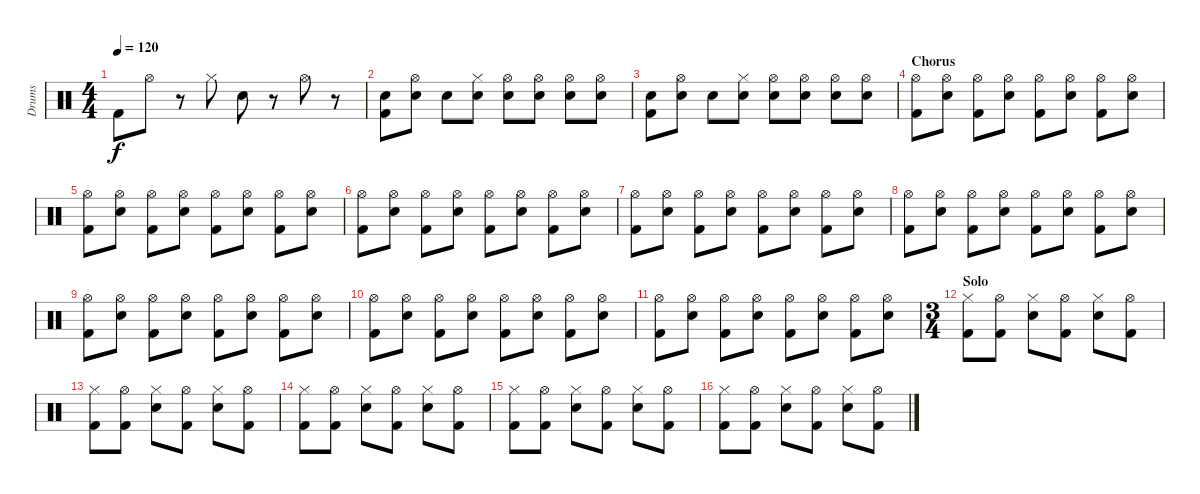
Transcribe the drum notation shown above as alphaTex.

\track ("Drums" "Drums") {instrument percussion}
\staff {score}
\articulation defaults
\ts (4 4)
\tempo 120
\clef neutral
\ks c "Kick (hit) 2".8{dy f} "Hi-Hat (open)".8
r.8 "Hi-Hat (closed)".8 "Snare (hit) 2".8 r.8 "Hi-Hat (open)".8 r.8 |
("Snare (hit) 2" "Kick (hit) 2").8 ("Snare (hit) 2" "Hi-Hat (open)").8 "Snare (hit) 2".8 ("Snare (hit) 2" "Hi-Hat (closed)").8 ("Hi-Hat (open)" "Snare (hit) 2").8 ("Hi-Hat (open)" "Snare (hit) 2").8 ("Hi-Hat (open)" "Snare (hit) 2").8 ("Hi-Hat (open)" "Snare (hit) 2").8 |
("Snare (hit) 2" "Kick (hit) 2").8 ("Snare (hit) 2" "Hi-Hat (open)").8 "Snare (hit) 2".8 ("Snare (hit) 2" "Hi-Hat (closed)").8 ("Hi-Hat (open)" "Snare (hit) 2").8 ("Hi-Hat (open)" "Snare (hit) 2").8 ("Hi-Hat (open)" "Snare (hit) 2").8 ("Hi-Hat (open)" "Snare (hit) 2").8 |
\section ("" "Chorus")
("Hi-Hat (open)" "Kick (hit) 2").8 ("Hi-Hat (open)" "Snare (hit) 2").8 ("Hi-Hat (open)" "Kick (hit) 2").8 ("Hi-Hat (open)" "Snare (hit) 2").8 ("Hi-Hat (open)" "Kick (hit) 2").8 ("Hi-Hat (open)" "Snare (hit) 2").8 ("Hi-Hat (open)" "Kick (hit) 2").8 ("Hi-Hat (open)" "Snare (hit) 2").8 |
("Hi-Hat (open)" "Kick (hit) 2").8 ("Hi-Hat (open)" "Snare (hit) 2").8 ("Hi-Hat (open)" "Kick (hit) 2").8 ("Hi-Hat (open)" "Snare (hit) 2").8 ("Hi-Hat (open)" "Kick (hit) 2").8 ("Hi-Hat (open)" "Snare (hit) 2").8 ("Hi-Hat (open)" "Kick (hit) 2").8 ("Hi-Hat (open)" "Snare (hit) 2").8 |
("Hi-Hat (open)" "Kick (hit) 2").8 ("Hi-Hat (open)" "Snare (hit) 2").8 ("Hi-Hat (open)" "Kick (hit) 2").8 ("Hi-Hat (open)" "Snare (hit) 2").8 ("Hi-Hat (open)" "Kick (hit) 2").8 ("Hi-Hat (open)" "Snare (hit) 2").8 ("Hi-Hat (open)" "Kick (hit) 2").8 ("Hi-Hat (open)" "Snare (hit) 2").8 |
("Hi-Hat (open)" "Kick (hit) 2").8 ("Hi-Hat (open)" "Snare (hit) 2").8 ("Hi-Hat (open)" "Kick (hit) 2").8 ("Hi-Hat (open)" "Snare (hit) 2").8 ("Hi-Hat (open)" "Kick (hit) 2").8 ("Hi-Hat (open)" "Snare (hit) 2").8 ("Hi-Hat (open)" "Kick (hit) 2").8 ("Hi-Hat (open)" "Snare (hit) 2").8 |
("Hi-Hat (open)" "Kick (hit) 2").8 ("Hi-Hat (open)" "Snare (hit) 2").8 ("Hi-Hat (open)" "Kick (hit) 2").8 ("Hi-Hat (open)" "Snare (hit) 2").8 ("Hi-Hat (open)" "Kick (hit) 2").8 ("Hi-Hat (open)" "Snare (hit) 2").8 ("Hi-Hat (open)" "Kick (hit) 2").8 ("Hi-Hat (open)" "Snare (hit) 2").8 |
("Hi-Hat (open)" "Kick (hit) 2").8 ("Hi-Hat (open)" "Snare (hit) 2").8 ("Hi-Hat (open)" "Kick (hit) 2").8 ("Hi-Hat (open)" "Snare (hit) 2").8 ("Hi-Hat (open)" "Kick (hit) 2").8 ("Hi-Hat (open)" "Snare (hit) 2").8 ("Hi-Hat (open)" "Kick (hit) 2").8 ("Hi-Hat (open)" "Snare (hit) 2").8 |
("Hi-Hat (open)" "Kick (hit) 2").8 ("Hi-Hat (open)" "Snare (hit) 2").8 ("Hi-Hat (open)" "Kick (hit) 2").8 ("Hi-Hat (open)" "Snare (hit) 2").8 ("Hi-Hat (open)" "Kick (hit) 2").8 ("Hi-Hat (open)" "Snare (hit) 2").8 ("Hi-Hat (open)" "Kick (hit) 2").8 ("Hi-Hat (open)" "Snare (hit) 2").8 |
("Hi-Hat (open)" "Kick (hit) 2").8 ("Hi-Hat (open)" "Snare (hit) 2").8 ("Hi-Hat (open)" "Kick (hit) 2").8 ("Hi-Hat (open)" "Snare (hit) 2").8 ("Hi-Hat (open)" "Kick (hit) 2").8 ("Hi-Hat (open)" "Snare (hit) 2").8 ("Hi-Hat (open)" "Kick (hit) 2").8 ("Hi-Hat (open)" "Snare (hit) 2").8 |
\ts (3 4)
\section ("" "Solo")
("Hi-Hat (closed)" "Kick (hit) 2").8 ("Hi-Hat (open)" "Kick (hit) 2").8 ("Hi-Hat (closed)" "Snare (hit) 2").8 ("Hi-Hat (open)" "Kick (hit) 2").8 ("Hi-Hat (closed)" "Snare (hit) 2").8 ("Hi-Hat (open)" "Kick (hit) 2").8 |
("Hi-Hat (closed)" "Kick (hit) 2").8 ("Hi-Hat (open)" "Kick (hit) 2").8 ("Hi-Hat (closed)" "Snare (hit) 2").8 ("Hi-Hat (open)" "Kick (hit) 2").8 ("Hi-Hat (closed)" "Snare (hit) 2").8 ("Hi-Hat (open)" "Kick (hit) 2").8 |
("Hi-Hat (closed)" "Kick (hit) 2").8 ("Hi-Hat (open)" "Kick (hit) 2").8 ("Hi-Hat (closed)" "Snare (hit) 2").8 ("Hi-Hat (open)" "Kick (hit) 2").8 ("Hi-Hat (closed)" "Snare (hit) 2").8 ("Hi-Hat (open)" "Kick (hit) 2").8 |
("Hi-Hat (closed)" "Kick (hit) 2").8 ("Hi-Hat (open)" "Kick (hit) 2").8 ("Hi-Hat (closed)" "Snare (hit) 2").8 ("Hi-Hat (open)" "Kick (hit) 2").8 ("Hi-Hat (closed)" "Snare (hit) 2").8 ("Hi-Hat (open)" "Kick (hit) 2").8 |
("Hi-Hat (closed)" "Kick (hit) 2").8 ("Hi-Hat (open)" "Kick (hit) 2").8 ("Hi-Hat (closed)" "Snare (hit) 2").8 ("Hi-Hat (open)" "Kick (hit) 2").8 ("Hi-Hat (closed)" "Snare (hit) 2").8 ("Hi-Hat (open)" "Kick (hit) 2").8
